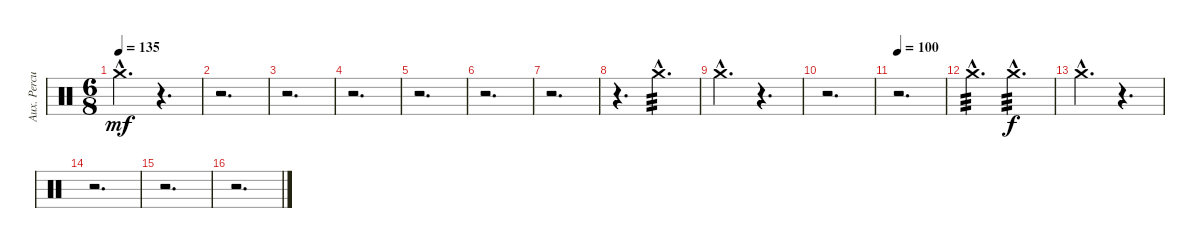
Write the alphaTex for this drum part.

\track ("Aux. Percussion" "Aux. Percu") {instrument percussion}
\staff {score}
\articulation defaults
\ts (6 8)
\tempo 135
\clef neutral
\ks c "Crash medium (hit)"{hac}.4{d dy mf}
r.4{d} |
r.2{d} |
r.2{d} |
r.2{d} |
r.2{d} |
r.2{d} |
r.2{d} |
r.4{d} "Crash medium (hit)"{hac}.4{d tp 3} |
"Crash medium (hit)"{hac}.4{d} r.4{d} |
r.2{d} |
\tempo 100
r.2{d} |
"Crash medium (hit)"{hac}.4{d tp 3} "Crash medium (hit)"{hac}.4{d tp 3 dy f} |
"Crash medium (hit)"{hac}.4{d} r.4{d} |
r.2{d} |
r.2{d} |
r.2{d}
